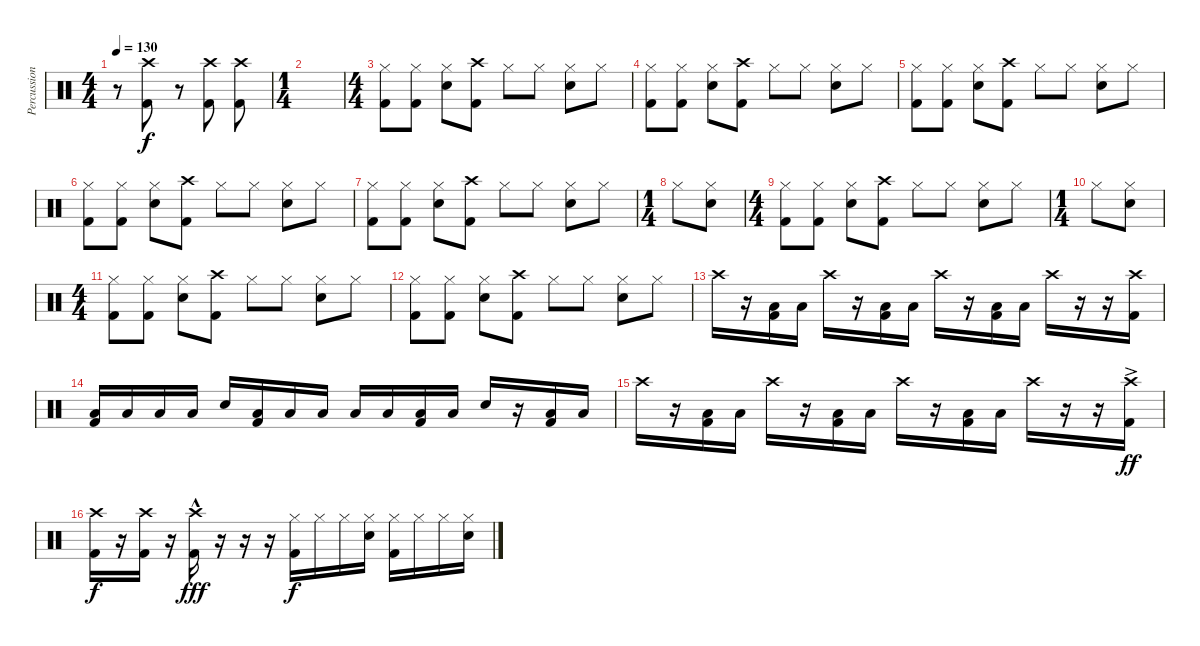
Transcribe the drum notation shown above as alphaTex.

\track ("Percussion" "Percussion") {instrument percussion}
\staff {score}
\articulation defaults
\ts (4 4)
\tempo 130
\clef neutral
\ks c
r.8{dy f} ("Crash high (hit)" "Kick (hit) 2").8 r.8 ("Crash high (hit)" "Kick (hit) 2").8 ("Crash high (hit)" "Kick (hit) 2").8 |
\ts (1 4)
|
\ts (4 4)
("Hi-Hat (closed)" "Kick (hit) 2").8 ("Hi-Hat (closed)" "Kick (hit) 2").8 ("Hi-Hat (closed)" "Snare (hit) 2").8 ("Crash high (hit)" "Kick (hit) 2").8 "Hi-Hat (closed)".8 "Hi-Hat (closed)".8 ("Hi-Hat (closed)" "Snare (hit) 2").8 "Hi-Hat (closed)".8 |
("Hi-Hat (closed)" "Kick (hit) 2").8 ("Hi-Hat (closed)" "Kick (hit) 2").8 ("Hi-Hat (closed)" "Snare (hit) 2").8 ("Crash high (hit)" "Kick (hit) 2").8 "Hi-Hat (closed)".8 "Hi-Hat (closed)".8 ("Hi-Hat (closed)" "Snare (hit) 2").8 "Hi-Hat (closed)".8 |
("Hi-Hat (closed)" "Kick (hit) 2").8 ("Hi-Hat (closed)" "Kick (hit) 2").8 ("Hi-Hat (closed)" "Snare (hit) 2").8 ("Crash high (hit)" "Kick (hit) 2").8 "Hi-Hat (closed)".8 "Hi-Hat (closed)".8 ("Hi-Hat (closed)" "Snare (hit) 2").8 "Hi-Hat (closed)".8 |
("Hi-Hat (closed)" "Kick (hit) 2").8 ("Hi-Hat (closed)" "Kick (hit) 2").8 ("Hi-Hat (closed)" "Snare (hit) 2").8 ("Crash high (hit)" "Kick (hit) 2").8 "Hi-Hat (closed)".8 "Hi-Hat (closed)".8 ("Hi-Hat (closed)" "Snare (hit) 2").8 "Hi-Hat (closed)".8 |
("Hi-Hat (closed)" "Kick (hit) 2").8 ("Hi-Hat (closed)" "Kick (hit) 2").8 ("Hi-Hat (closed)" "Snare (hit) 2").8 ("Crash high (hit)" "Kick (hit) 2").8 "Hi-Hat (closed)".8 "Hi-Hat (closed)".8 ("Hi-Hat (closed)" "Snare (hit) 2").8 "Hi-Hat (closed)".8 |
\ts (1 4)
"Hi-Hat (closed)".8 ("Hi-Hat (closed)" "Snare (hit) 2").8 |
\ts (4 4)
("Hi-Hat (closed)" "Kick (hit) 2").8 ("Hi-Hat (closed)" "Kick (hit) 2").8 ("Hi-Hat (closed)" "Snare (hit) 2").8 ("Crash high (hit)" "Kick (hit) 2").8 "Hi-Hat (closed)".8 "Hi-Hat (closed)".8 ("Hi-Hat (closed)" "Snare (hit) 2").8 "Hi-Hat (closed)".8 |
\ts (1 4)
"Hi-Hat (closed)".8 ("Hi-Hat (closed)" "Snare (hit) 2").8 |
\ts (4 4)
("Hi-Hat (closed)" "Kick (hit) 2").8 ("Hi-Hat (closed)" "Kick (hit) 2").8 ("Hi-Hat (closed)" "Snare (hit) 2").8 ("Crash high (hit)" "Kick (hit) 2").8 "Hi-Hat (closed)".8 "Hi-Hat (closed)".8 ("Hi-Hat (closed)" "Snare (hit) 2").8 "Hi-Hat (closed)".8 |
("Hi-Hat (closed)" "Kick (hit) 2").8 ("Hi-Hat (closed)" "Kick (hit) 2").8 ("Hi-Hat (closed)" "Snare (hit) 2").8 ("Crash high (hit)" "Kick (hit) 2").8 "Hi-Hat (closed)".8 "Hi-Hat (closed)".8 ("Hi-Hat (closed)" "Snare (hit) 2").8 "Hi-Hat (closed)".8 |
"Crash high (hit)".16 r.16 ("Low Tom (hit)" "Kick (hit) 2").16 "Low Tom (hit)".16 "Crash high (hit)".16 r.16 ("Low Tom (hit)" "Kick (hit) 2").16 "Low Tom (hit)".16 "Crash high (hit)".16 r.16 ("Low Tom (hit)" "Kick (hit) 2").16 "Low Tom (hit)".16 "Crash high (hit)".16 r.16 r.16 ("Crash high (hit)" "Kick (hit) 2").16 |
("Low Tom (hit)" "Kick (hit) 2").16 "Low Tom (hit)".16 "Low Tom (hit)".16 "Low Tom (hit)".16 "Snare (hit) 2".16 ("Low Tom (hit)" "Kick (hit) 2").16 "Low Tom (hit)".16 "Low Tom (hit)".16 "Low Tom (hit)".16 "Low Tom (hit)".16 ("Low Tom (hit)" "Kick (hit) 2").16 "Low Tom (hit)".16 "Snare (hit) 2".16 r.16 ("Low Tom (hit)" "Kick (hit) 2").16 "Low Tom (hit)".16 |
"Crash high (hit)".16 r.16 ("Low Tom (hit)" "Kick (hit) 2").16 "Low Tom (hit)".16 "Crash high (hit)".16 r.16 ("Low Tom (hit)" "Kick (hit) 2").16 "Low Tom (hit)".16 "Crash high (hit)".16 r.16 ("Low Tom (hit)" "Kick (hit) 2").16 "Low Tom (hit)".16 "Crash high (hit)".16 r.16 r.16 ("Crash high (hit)"{ac} "Kick (hit) 2"{ac}).16{dy ff} |
("Crash high (hit)" "Kick (hit) 2").16{dy f} r.16 ("Kick (hit) 2" "Crash high (hit)").16 r.16 ("Crash high (hit)"{hac} "Kick (hit) 2"{hac}).16{dy fff} r.16 r.16 r.16 ("Hi-Hat (closed)" "Kick (hit) 2").16{dy f} "Hi-Hat (closed)".16 "Hi-Hat (closed)".16 ("Hi-Hat (closed)" "Snare (hit) 2").16 ("Hi-Hat (closed)" "Kick (hit) 2").16 "Hi-Hat (closed)".16 "Hi-Hat (closed)".16 ("Hi-Hat (closed)" "Snare (hit) 2").16
